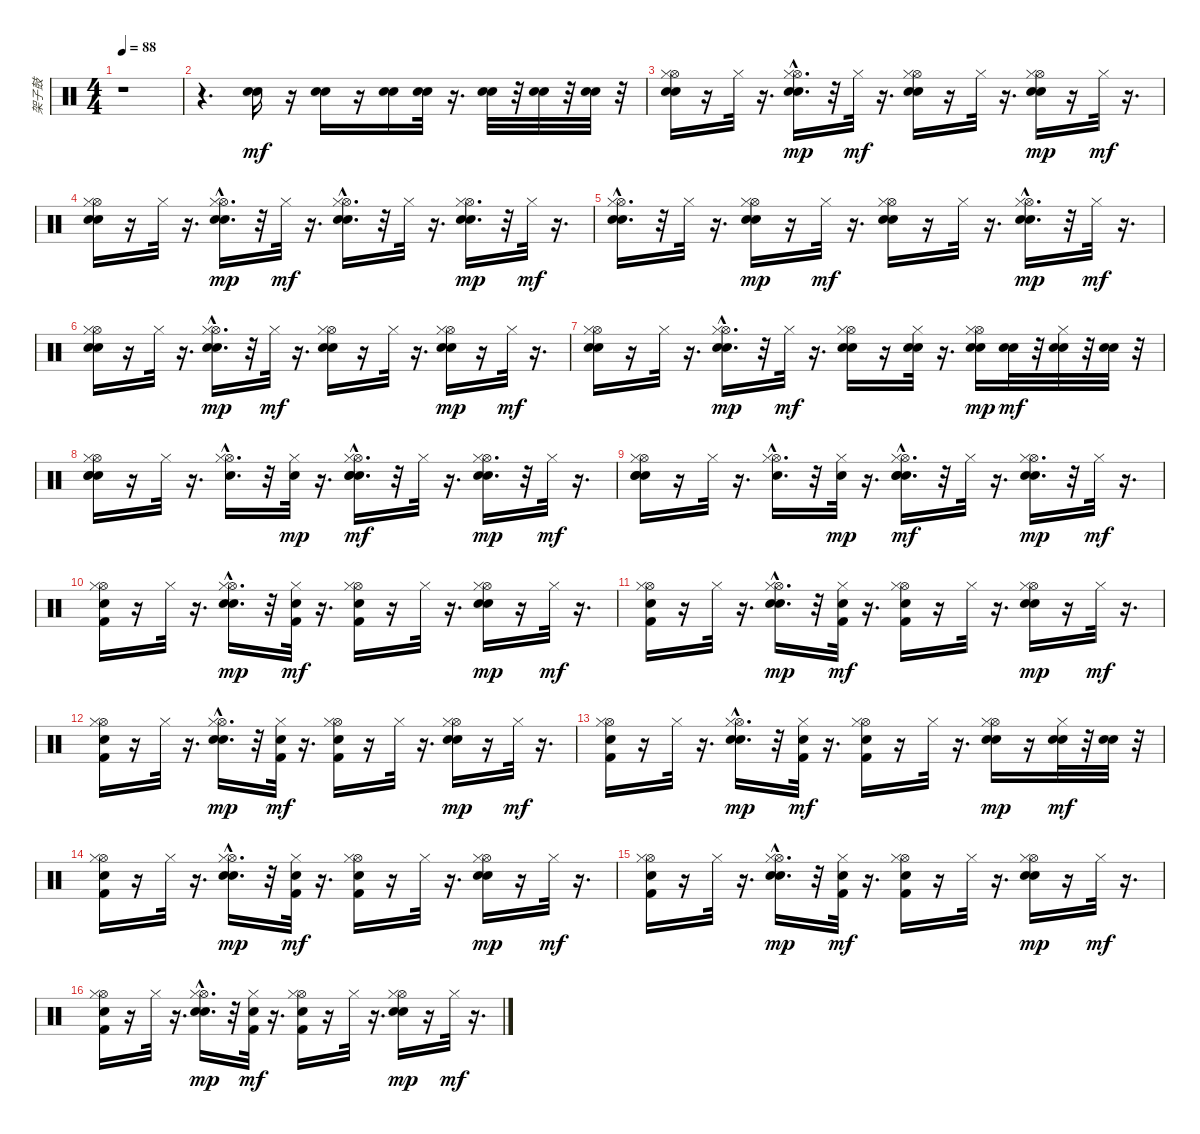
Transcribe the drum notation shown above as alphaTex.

\track ("架子鼓" "架子鼓") {instrument percussion}
\staff {score}
\articulation defaults
\ts (4 4)
\tempo 88
\clef neutral
\ks c
r.1{dy mf} |
r.4{d} ("Electric Snare (hit)" "Metronome (bell)").16 r.16 ("Electric Snare (hit)" "Metronome (bell)").16 r.16 ("Electric Snare (hit)" "Metronome (bell)").16 ("Electric Snare (hit)" "Metronome (bell)").32 r.16{d} ("Electric Snare (hit)" "Metronome (bell)").32 r.32 ("Electric Snare (hit)" "Metronome (bell)").32 r.32 ("Electric Snare (hit)" "Metronome (bell)").32 r.32 |
("Hi-Hat (open)" "Hi-Hat (closed)" "Electric Snare (hit)" "Electric Snare (hit)").16 r.16 "Hi-Hat (closed)".32 r.16{d} ("Hi-Hat (open)"{hac} "Hi-Hat (closed)" "Electric Snare (hit)" "Metronome (bell)").16{d dy mp} r.32 "Hi-Hat (closed)".32{dy mf} r.16{d} ("Hi-Hat (open)" "Hi-Hat (closed)" "Electric Snare (hit)" "Electric Snare (hit)").16 r.16 "Hi-Hat (closed)".32 r.16{d} ("Hi-Hat (open)" "Hi-Hat (closed)" "Electric Snare (hit)" "Metronome (bell)").16{dy mp} r.16 "Hi-Hat (closed)".32{dy mf} r.16{d} |
("Hi-Hat (open)" "Hi-Hat (closed)" "Electric Snare (hit)" "Electric Snare (hit)").16 r.16 "Hi-Hat (closed)".32 r.16{d} ("Hi-Hat (open)"{hac} "Hi-Hat (closed)" "Electric Snare (hit)" "Metronome (bell)").16{d dy mp} r.32 "Hi-Hat (closed)".32{dy mf} r.16{d} ("Hi-Hat (open)"{hac} "Hi-Hat (closed)" "Electric Snare (hit)" "Electric Snare (hit)").16{d} r.32 "Hi-Hat (closed)".32 r.16{d} ("Hi-Hat (open)" "Hi-Hat (closed)" "Electric Snare (hit)" "Metronome (bell)").16{d dy mp} r.32 "Hi-Hat (closed)".32{dy mf} r.16{d} |
("Hi-Hat (open)"{hac} "Hi-Hat (closed)" "Electric Snare (hit)" "Electric Snare (hit)").16{d} r.32 "Hi-Hat (closed)".32 r.16{d} ("Hi-Hat (open)" "Hi-Hat (closed)" "Electric Snare (hit)" "Metronome (bell)").16{dy mp} r.16 "Hi-Hat (closed)".32{dy mf} r.16{d} ("Hi-Hat (open)" "Hi-Hat (closed)" "Electric Snare (hit)" "Electric Snare (hit)").16 r.16 "Hi-Hat (closed)".32 r.16{d} ("Hi-Hat (open)"{hac} "Hi-Hat (closed)" "Electric Snare (hit)" "Metronome (bell)").16{d dy mp} r.32 "Hi-Hat (closed)".32{dy mf} r.16{d} |
("Hi-Hat (open)" "Hi-Hat (closed)" "Electric Snare (hit)" "Electric Snare (hit)").16 r.16 "Hi-Hat (closed)".32 r.16{d} ("Hi-Hat (open)"{hac} "Hi-Hat (closed)" "Electric Snare (hit)" "Metronome (bell)").16{d dy mp} r.32 "Hi-Hat (closed)".32{dy mf} r.16{d} ("Hi-Hat (open)" "Hi-Hat (closed)" "Electric Snare (hit)" "Electric Snare (hit)").16 r.16 "Hi-Hat (closed)".32 r.16{d} ("Hi-Hat (open)" "Hi-Hat (closed)" "Electric Snare (hit)" "Metronome (bell)").16{dy mp} r.16 "Hi-Hat (closed)".32{dy mf} r.16{d} |
("Hi-Hat (open)" "Hi-Hat (closed)" "Electric Snare (hit)" "Electric Snare (hit)").16 r.16 "Hi-Hat (closed)".32 r.16{d} ("Hi-Hat (open)"{hac} "Hi-Hat (closed)" "Electric Snare (hit)" "Metronome (bell)").16{d dy mp} r.32 "Hi-Hat (closed)".32{dy mf} r.16{d} ("Hi-Hat (open)" "Hi-Hat (closed)" "Electric Snare (hit)" "Metronome (bell)").16 r.16 ("Hi-Hat (closed)" "Electric Snare (hit)" "Metronome (bell)").32 r.16{d} ("Hi-Hat (open)" "Hi-Hat (closed)" "Electric Snare (hit)" "Metronome (bell)").16{dy mp} ("Metronome (bell)" "Electric Snare (hit)").32{dy mf} r.32 ("Hi-Hat (closed)" "Electric Snare (hit)" "Metronome (bell)").32 r.32 ("Electric Snare (hit)" "Metronome (bell)").32 r.32 |
("Hi-Hat (open)" "Hi-Hat (closed)" "Electric Snare (hit)" "Electric Snare (hit)" "Metronome (bell)").16 r.16 "Hi-Hat (closed)".32 r.16{d} ("Hi-Hat (open)"{hac} "Hi-Hat (closed)" "Electric Snare (hit)").16{d} r.32 ("Hi-Hat (closed)" "Metronome (bell)").32{dy mp} r.16{d} ("Hi-Hat (open)"{hac} "Hi-Hat (closed)" "Electric Snare (hit)" "Electric Snare (hit)" "Metronome (bell)").16{d dy mf} r.32 "Hi-Hat (closed)".32 r.16{d} ("Hi-Hat (open)" "Hi-Hat (closed)" "Electric Snare (hit)" "Metronome (bell)").16{d dy mp} r.32 "Hi-Hat (closed)".32{dy mf} r.16{d} |
("Hi-Hat (open)" "Hi-Hat (closed)" "Electric Snare (hit)" "Electric Snare (hit)" "Metronome (bell)").16 r.16 "Hi-Hat (closed)".32 r.16{d} ("Hi-Hat (open)"{hac} "Hi-Hat (closed)" "Electric Snare (hit)").16{d} r.32 ("Hi-Hat (closed)" "Metronome (bell)").32{dy mp} r.16{d} ("Hi-Hat (open)"{hac} "Hi-Hat (closed)" "Electric Snare (hit)" "Electric Snare (hit)" "Metronome (bell)").16{d dy mf} r.32 "Hi-Hat (closed)".32 r.16{d} ("Hi-Hat (open)" "Hi-Hat (closed)" "Electric Snare (hit)" "Metronome (bell)").16{d dy mp} r.32 "Hi-Hat (closed)".32{dy mf} r.16{d} |
("Hi-Hat (open)" "Hi-Hat (closed)" "Kick (hit) 2" "Snare (hit)").16 r.16 "Hi-Hat (closed)".32 r.16{d} ("Hi-Hat (open)"{hac} "Hi-Hat (closed)" "Electric Snare (hit)" "Metronome (bell)").16{d dy mp} r.32 ("Hi-Hat (closed)" "Kick (hit) 2" "Snare (hit)").32{dy mf} r.16{d} ("Hi-Hat (open)" "Hi-Hat (closed)" "Kick (hit) 2" "Snare (hit)").16 r.16 "Hi-Hat (closed)".32 r.16{d} ("Hi-Hat (open)" "Hi-Hat (closed)" "Electric Snare (hit)" "Metronome (bell)").16{dy mp} r.16 "Hi-Hat (closed)".32{dy mf} r.16{d} |
("Hi-Hat (open)" "Hi-Hat (closed)" "Kick (hit) 2" "Snare (hit)").16 r.16 "Hi-Hat (closed)".32 r.16{d} ("Hi-Hat (open)"{hac} "Hi-Hat (closed)" "Electric Snare (hit)" "Metronome (bell)").16{d dy mp} r.32 ("Hi-Hat (closed)" "Kick (hit) 2" "Snare (hit)").32{dy mf} r.16{d} ("Hi-Hat (open)" "Hi-Hat (closed)" "Kick (hit) 2" "Snare (hit)").16 r.16 "Hi-Hat (closed)".32 r.16{d} ("Hi-Hat (open)" "Hi-Hat (closed)" "Electric Snare (hit)" "Metronome (bell)").16{dy mp} r.16 "Hi-Hat (closed)".32{dy mf} r.16{d} |
("Hi-Hat (open)" "Hi-Hat (closed)" "Kick (hit) 2" "Snare (hit)").16 r.16 "Hi-Hat (closed)".32 r.16{d} ("Hi-Hat (open)"{hac} "Hi-Hat (closed)" "Electric Snare (hit)" "Metronome (bell)").16{d dy mp} r.32 ("Hi-Hat (closed)" "Kick (hit) 2" "Snare (hit)").32{dy mf} r.16{d} ("Hi-Hat (open)" "Hi-Hat (closed)" "Kick (hit) 2" "Snare (hit)").16 r.16 "Hi-Hat (closed)".32 r.16{d} ("Hi-Hat (open)" "Hi-Hat (closed)" "Electric Snare (hit)" "Metronome (bell)").16{dy mp} r.16 "Hi-Hat (closed)".32{dy mf} r.16{d} |
("Hi-Hat (open)" "Hi-Hat (closed)" "Kick (hit) 2" "Snare (hit)").16 r.16 "Hi-Hat (closed)".32 r.16{d} ("Hi-Hat (open)"{hac} "Hi-Hat (closed)" "Electric Snare (hit)" "Metronome (bell)").16{d dy mp} r.32 ("Hi-Hat (closed)" "Kick (hit) 2" "Snare (hit)").32{dy mf} r.16{d} ("Hi-Hat (open)" "Hi-Hat (closed)" "Kick (hit) 2" "Snare (hit)").16 r.16 "Hi-Hat (closed)".32 r.16{d} ("Hi-Hat (open)" "Hi-Hat (closed)" "Electric Snare (hit)" "Metronome (bell)").16{dy mp} r.16 ("Hi-Hat (closed)" "Electric Snare (hit)" "Metronome (bell)").32{dy mf} r.32 ("Electric Snare (hit)" "Metronome (bell)").32 r.32 |
("Hi-Hat (open)" "Hi-Hat (closed)" "Kick (hit) 2" "Snare (hit)").16 r.16 "Hi-Hat (closed)".32 r.16{d} ("Hi-Hat (open)"{hac} "Hi-Hat (closed)" "Electric Snare (hit)" "Metronome (bell)").16{d dy mp} r.32 ("Hi-Hat (closed)" "Kick (hit) 2" "Snare (hit)").32{dy mf} r.16{d} ("Hi-Hat (open)" "Hi-Hat (closed)" "Kick (hit) 2" "Snare (hit)").16 r.16 "Hi-Hat (closed)".32 r.16{d} ("Hi-Hat (open)" "Hi-Hat (closed)" "Electric Snare (hit)" "Metronome (bell)").16{dy mp} r.16 "Hi-Hat (closed)".32{dy mf} r.16{d} |
("Hi-Hat (open)" "Hi-Hat (closed)" "Kick (hit) 2" "Snare (hit)").16 r.16 "Hi-Hat (closed)".32 r.16{d} ("Hi-Hat (open)"{hac} "Hi-Hat (closed)" "Electric Snare (hit)" "Metronome (bell)").16{d dy mp} r.32 ("Hi-Hat (closed)" "Kick (hit) 2" "Snare (hit)").32{dy mf} r.16{d} ("Hi-Hat (open)" "Hi-Hat (closed)" "Kick (hit) 2" "Snare (hit)").16 r.16 "Hi-Hat (closed)".32 r.16{d} ("Hi-Hat (open)" "Hi-Hat (closed)" "Electric Snare (hit)" "Metronome (bell)").16{dy mp} r.16 "Hi-Hat (closed)".32{dy mf} r.16{d} |
("Hi-Hat (open)" "Hi-Hat (closed)" "Kick (hit) 2" "Snare (hit)").16 r.16 "Hi-Hat (closed)".32 r.16{d} ("Hi-Hat (open)"{hac} "Hi-Hat (closed)" "Electric Snare (hit)" "Metronome (bell)").16{d dy mp} r.32 ("Hi-Hat (closed)" "Kick (hit) 2" "Snare (hit)").32{dy mf} r.16{d} ("Hi-Hat (open)" "Hi-Hat (closed)" "Kick (hit) 2" "Snare (hit)").16 r.16 "Hi-Hat (closed)".32 r.16{d} ("Hi-Hat (open)" "Hi-Hat (closed)" "Electric Snare (hit)" "Metronome (bell)").16{dy mp} r.16 "Hi-Hat (closed)".32{dy mf} r.16{d}
